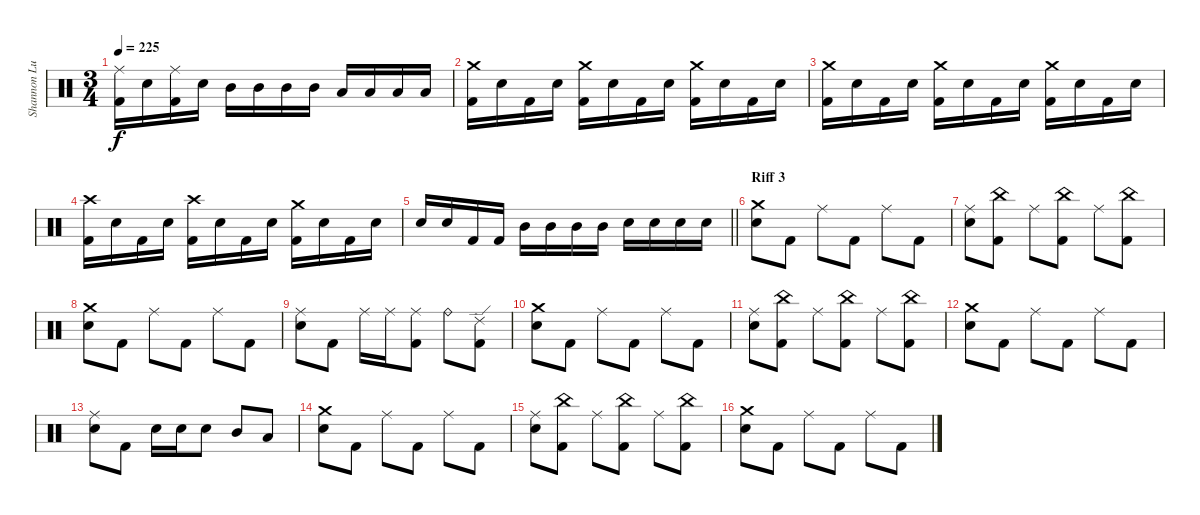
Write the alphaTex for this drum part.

\track ("Shannon Lucas" "Shannon Lu") {instrument percussion}
\staff {score}
\articulation defaults
\ts (3 4)
\tempo 225
\clef neutral
\ks c
("Ride (middle)" "Kick (hit) 2").16{dy f} "Electric Snare (hit)".16 ("Ride (middle)" "Kick (hit) 2").16 "Electric Snare (hit)".16 "Mid Tom (hit)".16 "Mid Tom (hit)".16 "Mid Tom (hit)".16 "Mid Tom (hit)".16 "Low Tom (hit)".16 "Low Tom (hit)".16 "Low Tom (hit)".16 "Low Tom (hit)".16 |
("Crash medium (hit)" "Kick (hit) 2").16 "Electric Snare (hit)".16 "Kick (hit) 2".16 "Electric Snare (hit)".16 ("Crash medium (hit)" "Kick (hit) 2").16 "Electric Snare (hit)".16 "Kick (hit) 2".16 "Electric Snare (hit)".16 ("Crash medium (hit)" "Kick (hit) 2").16 "Electric Snare (hit)".16 "Kick (hit) 2".16 "Electric Snare (hit)".16 |
("Crash medium (hit)" "Kick (hit) 2").16 "Electric Snare (hit)".16 "Kick (hit) 2".16 "Electric Snare (hit)".16 ("Crash medium (hit)" "Kick (hit) 2").16 "Electric Snare (hit)".16 "Kick (hit) 2".16 "Electric Snare (hit)".16 ("Crash medium (hit)" "Kick (hit) 2").16 "Electric Snare (hit)".16 "Kick (hit) 2".16 "Electric Snare (hit)".16 |
("Crash high (hit)" "Kick (hit) 2").16 "Electric Snare (hit)".16 "Kick (hit) 2".16 "Electric Snare (hit)".16 ("Crash high (hit)" "Kick (hit) 2").16 "Electric Snare (hit)".16 "Kick (hit) 2".16 "Electric Snare (hit)".16 ("Crash medium (hit)" "Kick (hit) 2").16 "Electric Snare (hit)".16 "Kick (hit) 2".16 "Electric Snare (hit)".16 |
\barLineRight lightlight "Electric Snare (hit)".16 "Electric Snare (hit)".16 "Kick (hit) 2".16 "Kick (hit) 2".16 "Mid Tom (hit)".16 "Mid Tom (hit)".16 "Mid Tom (hit)".16 "Mid Tom (hit)".16 "Electric Snare (hit)".16 "Electric Snare (hit)".16 "Electric Snare (hit)".16 "Electric Snare (hit)".16
|
\section ("" "Riff 3")
("Crash medium (hit)" "Electric Snare (hit)").8 "Kick (hit) 2".8 "Ride (middle)".8 "Kick (hit) 2".8 "Ride (middle)".8 "Kick (hit) 2".8 |
("Ride (middle)" "Electric Snare (hit)").8 ("China (hit)" "Kick (hit) 2").8 "Ride (middle)".8 ("China (hit)" "Kick (hit) 2").8 "Ride (middle)".8 ("China (hit)" "Kick (hit) 2").8 |
("Crash medium (hit)" "Electric Snare (hit)").8 "Kick (hit) 2".8 "Ride (middle)".8 "Kick (hit) 2".8 "Ride (middle)".8 "Kick (hit) 2".8 |
("Ride (middle)" "Electric Snare (hit)").8 "Kick (hit) 2".8 "Ride (middle)".16 "Ride (middle)".16 ("Ride (middle)" "Kick (hit) 2").8 "Ride (bell)".8 ("Ride (edge) 2" "Kick (hit) 2").8 |
("Crash medium (hit)" "Electric Snare (hit)").8 "Kick (hit) 2".8 "Ride (middle)".8 "Kick (hit) 2".8 "Ride (middle)".8 "Kick (hit) 2".8 |
("Ride (middle)" "Electric Snare (hit)").8 ("China (hit)" "Kick (hit) 2").8 "Ride (middle)".8 ("China (hit)" "Kick (hit) 2").8 "Ride (middle)".8 ("China (hit)" "Kick (hit) 2").8 |
("Crash medium (hit)" "Electric Snare (hit)").8 "Kick (hit) 2".8 "Ride (middle)".8 "Kick (hit) 2".8 "Ride (middle)".8 "Kick (hit) 2".8 |
("Ride (middle)" "Electric Snare (hit)").8 "Kick (hit) 2".8 "Electric Snare (hit)".16 "Electric Snare (hit)".16 "Electric Snare (hit)".8 "Mid Tom (hit)".8 "Low Tom (hit)".8 |
("Crash medium (hit)" "Electric Snare (hit)").8 "Kick (hit) 2".8 "Ride (middle)".8 "Kick (hit) 2".8 "Ride (middle)".8 "Kick (hit) 2".8 |
("Ride (middle)" "Electric Snare (hit)").8 ("China (hit)" "Kick (hit) 2").8 "Ride (middle)".8 ("China (hit)" "Kick (hit) 2").8 "Ride (middle)".8 ("China (hit)" "Kick (hit) 2").8 |
("Crash medium (hit)" "Electric Snare (hit)").8 "Kick (hit) 2".8 "Ride (middle)".8 "Kick (hit) 2".8 "Ride (middle)".8 "Kick (hit) 2".8
